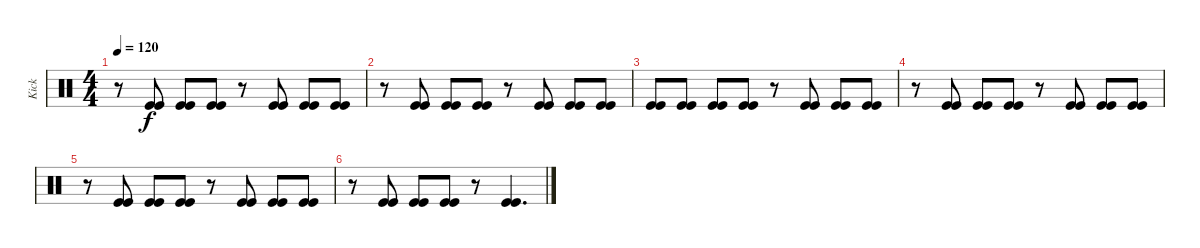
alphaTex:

\track ("Kick" "Kick") {instrument percussion}
\staff {score}
\articulation defaults
\ts (4 4)
\tempo 120
\clef neutral
\ks c
r.8{dy f} ("Kick (hit)" "Kick (hit)").8 ("Kick (hit)" "Kick (hit)").8 ("Kick (hit)" "Kick (hit)").8 r.8 ("Kick (hit)" "Kick (hit)").8 ("Kick (hit)" "Kick (hit)").8 ("Kick (hit)" "Kick (hit)").8 |
r.8 ("Kick (hit)" "Kick (hit)").8 ("Kick (hit)" "Kick (hit)").8 ("Kick (hit)" "Kick (hit)").8 r.8 ("Kick (hit)" "Kick (hit)").8 ("Kick (hit)" "Kick (hit)").8 ("Kick (hit)" "Kick (hit)").8 |
("Kick (hit)" "Kick (hit)").8 ("Kick (hit)" "Kick (hit)").8 ("Kick (hit)" "Kick (hit)").8 ("Kick (hit)" "Kick (hit)").8 r.8 ("Kick (hit)" "Kick (hit)").8 ("Kick (hit)" "Kick (hit)").8 ("Kick (hit)" "Kick (hit)").8 |
r.8 ("Kick (hit)" "Kick (hit)").8 ("Kick (hit)" "Kick (hit)").8 ("Kick (hit)" "Kick (hit)").8 r.8 ("Kick (hit)" "Kick (hit)").8 ("Kick (hit)" "Kick (hit)").8 ("Kick (hit)" "Kick (hit)").8 |
r.8 ("Kick (hit)" "Kick (hit)").8 ("Kick (hit)" "Kick (hit)").8 ("Kick (hit)" "Kick (hit)").8 r.8 ("Kick (hit)" "Kick (hit)").8 ("Kick (hit)" "Kick (hit)").8 ("Kick (hit)" "Kick (hit)").8 |
r.8 ("Kick (hit)" "Kick (hit)").8 ("Kick (hit)" "Kick (hit)").8 ("Kick (hit)" "Kick (hit)").8 r.8 ("Kick (hit)" "Kick (hit)").4{d}
